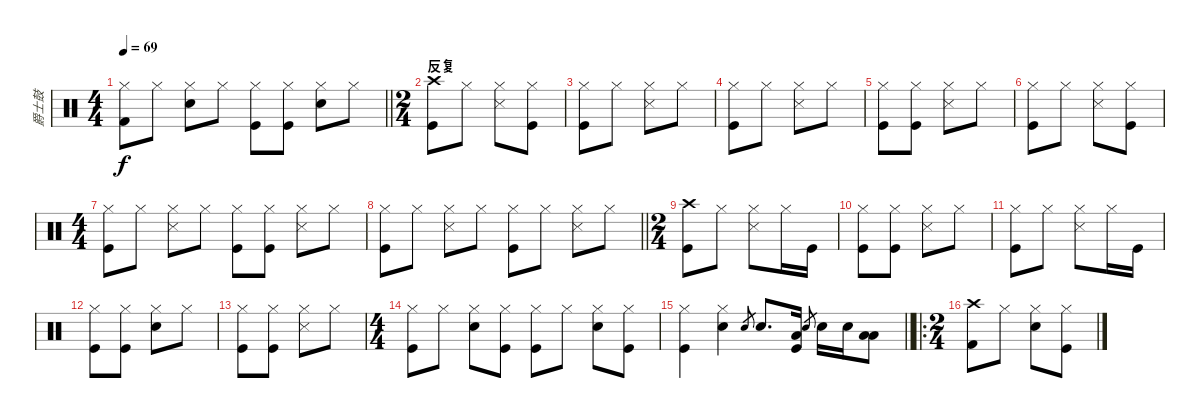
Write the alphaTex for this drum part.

\track ("爵士鼓" "爵士鼓") {instrument percussion}
\staff {score}
\articulation defaults
\ts (4 4)
\tempo 69
\clef neutral
\barLineRight lightlight
\ks c
("Hi-Hat (closed)" "Kick (hit) 2").8{dy f} "Hi-Hat (closed)".8 ("Hi-Hat (closed)" "Snare (hit) 2").8 "Hi-Hat (closed)".8 ("Hi-Hat (closed)" "Kick (hit)").8 ("Hi-Hat (closed)" "Kick (hit)").8 ("Hi-Hat (closed)" "Snare (hit) 2").8 "Hi-Hat (closed)".8 |
\ts (2 4)
\section ("" "反复")
("Crash high (hit)" "Kick (hit)").8 "Hi-Hat (closed)".8 ("Hi-Hat (closed)" "Snare (side stick) 3").8 ("Hi-Hat (closed)" "Kick (hit)").8 |
("Hi-Hat (closed)" "Kick (hit)").8 "Hi-Hat (closed)".8 ("Hi-Hat (closed)" "Snare (side stick) 3").8 "Hi-Hat (closed)".8 |
("Hi-Hat (closed)" "Kick (hit)").8 "Hi-Hat (closed)".8 ("Hi-Hat (closed)" "Snare (side stick) 3").8 "Hi-Hat (closed)".8 |
("Hi-Hat (closed)" "Kick (hit)").8 ("Hi-Hat (closed)" "Kick (hit)").8 ("Hi-Hat (closed)" "Snare (side stick) 3").8 "Hi-Hat (closed)".8 |
("Hi-Hat (closed)" "Kick (hit)").8 "Hi-Hat (closed)".8 ("Hi-Hat (closed)" "Snare (side stick) 3").8 ("Hi-Hat (closed)" "Kick (hit)").8 |
\ts (4 4)
("Hi-Hat (closed)" "Kick (hit)").8 "Hi-Hat (closed)".8 ("Hi-Hat (closed)" "Snare (side stick) 3").8 "Hi-Hat (closed)".8 ("Hi-Hat (closed)" "Kick (hit)").8 ("Hi-Hat (closed)" "Kick (hit)").8 ("Hi-Hat (closed)" "Snare (side stick) 3").8 "Hi-Hat (closed)".8 |
\barLineRight lightlight
("Hi-Hat (closed)" "Kick (hit)").8 "Hi-Hat (closed)".8 ("Hi-Hat (closed)" "Snare (side stick) 3").8 "Hi-Hat (closed)".8 ("Hi-Hat (closed)" "Kick (hit)").8 "Hi-Hat (closed)".8 ("Hi-Hat (closed)" "Snare (side stick) 3").8 "Hi-Hat (closed)".8 |
\ts (2 4)
("Crash high (hit)" "Kick (hit)").8 "Hi-Hat (closed)".8 ("Hi-Hat (closed)" "Snare (side stick) 3").8 "Hi-Hat (closed)".16 "Kick (hit)".16 |
("Hi-Hat (closed)" "Kick (hit)").8 ("Hi-Hat (closed)" "Kick (hit)").8 ("Hi-Hat (closed)" "Snare (side stick) 3").8 "Hi-Hat (closed)".8 |
("Hi-Hat (closed)" "Kick (hit)").8 "Hi-Hat (closed)".8 ("Hi-Hat (closed)" "Snare (side stick) 3").8 "Hi-Hat (closed)".16 "Kick (hit)".16 |
("Hi-Hat (closed)" "Kick (hit)").8 ("Hi-Hat (closed)" "Kick (hit)").8 ("Hi-Hat (closed)" "Snare (hit) 2").8 "Hi-Hat (closed)".8 |
("Hi-Hat (closed)" "Kick (hit)").8 ("Hi-Hat (closed)" "Kick (hit)").8 ("Hi-Hat (closed)" "Snare (side stick) 3").8 "Hi-Hat (closed)".8 |
\ts (4 4)
("Hi-Hat (closed)" "Kick (hit)").8 "Hi-Hat (closed)".8 ("Hi-Hat (closed)" "Snare (hit) 2").8 ("Hi-Hat (closed)" "Kick (hit)").8 ("Hi-Hat (closed)" "Kick (hit)").8 "Hi-Hat (closed)".8 ("Hi-Hat (closed)" "Snare (hit) 2").8 ("Hi-Hat (closed)" "Kick (hit)").8 |
\barLineRight lightlight
("Hi-Hat (closed)" "Kick (hit)").4 ("Hi-Hat (closed)" "Snare (hit) 2").4 "Snare (hit) 2".8{gr} "Snare (hit) 2".8{d} ("Low Tom (hit)" "Kick (hit)").16 "Snare (hit) 2".8{gr} "Snare (hit) 2".16 "Snare (hit) 2".16 ("Low Tom (hit)" "Low Floor Tom (hit)").8 |
\ro
\ts (2 4)
("Crash high (hit)" "Kick (hit) 2").8 "Hi-Hat (closed)".8 ("Hi-Hat (closed)" "Snare (hit) 2").8 ("Hi-Hat (closed)" "Kick (hit)").8
